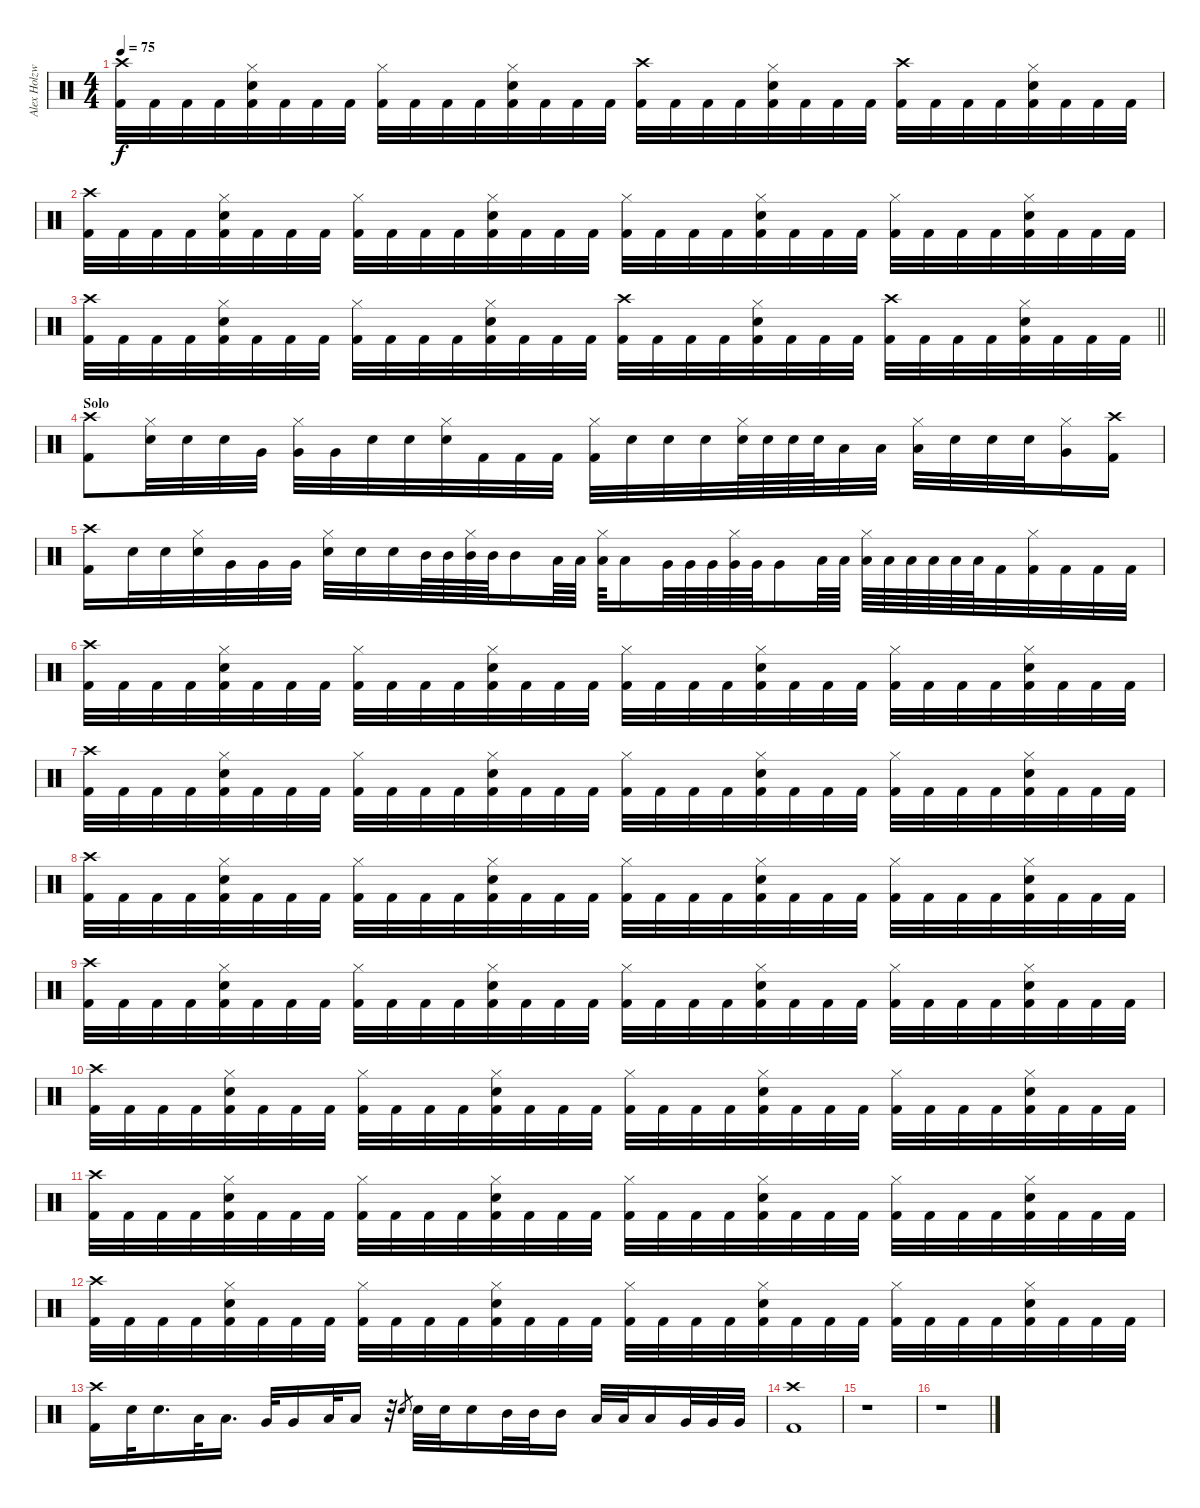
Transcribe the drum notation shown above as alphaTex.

\track ("Alex Holzwarth (Drums)" "Alex Holzw") {instrument percussion}
\staff {score}
\articulation defaults
\ts (4 4)
\tempo 75
\clef neutral
\ks c
("Crash high (hit)" "Kick (hit) 2").32{dy f} "Kick (hit) 2".32 "Kick (hit) 2".32 "Kick (hit) 2".32 ("Hi-Hat (closed)" "Electric Snare (hit)" "Kick (hit) 2").32 "Kick (hit) 2".32 "Kick (hit) 2".32 "Kick (hit) 2".32 ("Hi-Hat (closed)" "Kick (hit) 2").32 "Kick (hit) 2".32 "Kick (hit) 2".32 "Kick (hit) 2".32 ("Hi-Hat (closed)" "Electric Snare (hit)" "Kick (hit) 2").32 "Kick (hit) 2".32 "Kick (hit) 2".32 "Kick (hit) 2".32 ("Crash high (hit)" "Kick (hit) 2").32 "Kick (hit) 2".32 "Kick (hit) 2".32 "Kick (hit) 2".32 ("Hi-Hat (closed)" "Electric Snare (hit)" "Kick (hit) 2").32 "Kick (hit) 2".32 "Kick (hit) 2".32 "Kick (hit) 2".32 ("Crash high (hit)" "Kick (hit) 2").32 "Kick (hit) 2".32 "Kick (hit) 2".32 "Kick (hit) 2".32 ("Hi-Hat (closed)" "Electric Snare (hit)" "Kick (hit) 2").32 "Kick (hit) 2".32 "Kick (hit) 2".32 "Kick (hit) 2".32 |
("Crash high (hit)" "Kick (hit) 2").32 "Kick (hit) 2".32 "Kick (hit) 2".32 "Kick (hit) 2".32 ("Hi-Hat (closed)" "Electric Snare (hit)" "Kick (hit) 2").32 "Kick (hit) 2".32 "Kick (hit) 2".32 "Kick (hit) 2".32 ("Hi-Hat (closed)" "Kick (hit) 2").32 "Kick (hit) 2".32 "Kick (hit) 2".32 "Kick (hit) 2".32 ("Hi-Hat (closed)" "Electric Snare (hit)" "Kick (hit) 2").32 "Kick (hit) 2".32 "Kick (hit) 2".32 "Kick (hit) 2".32 ("Hi-Hat (closed)" "Kick (hit) 2").32 "Kick (hit) 2".32 "Kick (hit) 2".32 "Kick (hit) 2".32 ("Hi-Hat (closed)" "Electric Snare (hit)" "Kick (hit) 2").32 "Kick (hit) 2".32 "Kick (hit) 2".32 "Kick (hit) 2".32 ("Hi-Hat (closed)" "Kick (hit) 2").32 "Kick (hit) 2".32 "Kick (hit) 2".32 "Kick (hit) 2".32 ("Hi-Hat (closed)" "Electric Snare (hit)" "Kick (hit) 2").32 "Kick (hit) 2".32 "Kick (hit) 2".32 "Kick (hit) 2".32 |
\barLineRight lightlight
("Crash high (hit)" "Kick (hit) 2").32 "Kick (hit) 2".32 "Kick (hit) 2".32 "Kick (hit) 2".32 ("Hi-Hat (closed)" "Electric Snare (hit)" "Kick (hit) 2").32 "Kick (hit) 2".32 "Kick (hit) 2".32 "Kick (hit) 2".32 ("Hi-Hat (closed)" "Kick (hit) 2").32 "Kick (hit) 2".32 "Kick (hit) 2".32 "Kick (hit) 2".32 ("Hi-Hat (closed)" "Electric Snare (hit)" "Kick (hit) 2").32 "Kick (hit) 2".32 "Kick (hit) 2".32 "Kick (hit) 2".32 ("Crash high (hit)" "Kick (hit) 2").32 "Kick (hit) 2".32 "Kick (hit) 2".32 "Kick (hit) 2".32 ("Hi-Hat (closed)" "Electric Snare (hit)" "Kick (hit) 2").32 "Kick (hit) 2".32 "Kick (hit) 2".32 "Kick (hit) 2".32 ("Crash high (hit)" "Kick (hit) 2").32 "Kick (hit) 2".32 "Kick (hit) 2".32 "Kick (hit) 2".32 ("Hi-Hat (closed)" "Electric Snare (hit)" "Kick (hit) 2").32 "Kick (hit) 2".32 "Kick (hit) 2".32 "Kick (hit) 2".32 |
\section ("" "Solo")
("Crash high (hit)" "Kick (hit) 2").8 ("Hi-Hat (closed)" "Electric Snare (hit)").32 "Electric Snare (hit)".32 "Electric Snare (hit)".32 "Very Low Tom (hit)".32 ("Hi-Hat (closed)" "Very Low Tom (hit)").32 "Very Low Tom (hit)".32 "Electric Snare (hit)".32 "Electric Snare (hit)".32 ("Hi-Hat (closed)" "Electric Snare (hit)").32 "Kick (hit) 2".32 "Kick (hit) 2".32 "Kick (hit) 2".32 ("Hi-Hat (closed)" "Kick (hit) 2").32 "Electric Snare (hit)".32 "Electric Snare (hit)".32 "Electric Snare (hit)".32 ("Hi-Hat (closed)" "Electric Snare (hit)").64 "Electric Snare (hit)".64 "Electric Snare (hit)".64 "Electric Snare (hit)".64 "Low Tom (hit)".32 "Low Tom (hit)".32 ("Hi-Hat (closed)" "Low Tom (hit)").32 "Electric Snare (hit)".32 "Electric Snare (hit)".32 "Electric Snare (hit)".32 ("Hi-Hat (closed)" "Very Low Tom (hit)").16 ("Crash high (hit)" "Kick (hit) 2").16 |
("Crash high (hit)" "Kick (hit) 2").16 "Electric Snare (hit)".32 "Electric Snare (hit)".32 ("Hi-Hat (closed)" "Electric Snare (hit)").32 "Very Low Tom (hit)".32 "Very Low Tom (hit)".32 "Very Low Tom (hit)".32 ("Hi-Hat (closed)" "Electric Snare (hit)").32 "Electric Snare (hit)".32 "Electric Snare (hit)".32 "Mid Tom (hit)".64 "Mid Tom (hit)".64 ("Hi-Hat (closed)" "Mid Tom (hit)").64 "Mid Tom (hit)".64 "Mid Tom (hit)".16 "Low Tom (hit)".64 "Low Tom (hit)".64 ("Hi-Hat (closed)" "Low Tom (hit)").64 "Low Tom (hit)".16 "Very Low Tom (hit)".64 "Very Low Tom (hit)".64 "Very Low Tom (hit)".64 ("Hi-Hat (closed)" "Very Low Tom (hit)").64 "Very Low Tom (hit)".64 "Very Low Tom (hit)".16 "Low Floor Tom (hit)".64 "Low Floor Tom (hit)".64 ("Hi-Hat (closed)" "Low Floor Tom (hit)").64 "Low Floor Tom (hit)".64 "Low Floor Tom (hit)".64 "Low Floor Tom (hit)".64 "Low Floor Tom (hit)".64 "Low Floor Tom (hit)".64 "Kick (hit) 2".32 ("Hi-Hat (closed)" "Kick (hit) 2").32 "Kick (hit) 2".32 "Kick (hit) 2".32 "Kick (hit) 2".32 |
("Crash high (hit)" "Kick (hit) 2").32 "Kick (hit) 2".32 "Kick (hit) 2".32 "Kick (hit) 2".32 ("Hi-Hat (closed)" "Electric Snare (hit)" "Kick (hit) 2").32 "Kick (hit) 2".32 "Kick (hit) 2".32 "Kick (hit) 2".32 ("Hi-Hat (closed)" "Kick (hit) 2").32 "Kick (hit) 2".32 "Kick (hit) 2".32 "Kick (hit) 2".32 ("Hi-Hat (closed)" "Electric Snare (hit)" "Kick (hit) 2").32 "Kick (hit) 2".32 "Kick (hit) 2".32 "Kick (hit) 2".32 ("Hi-Hat (closed)" "Kick (hit) 2").32 "Kick (hit) 2".32 "Kick (hit) 2".32 "Kick (hit) 2".32 ("Hi-Hat (closed)" "Electric Snare (hit)" "Kick (hit) 2").32 "Kick (hit) 2".32 "Kick (hit) 2".32 "Kick (hit) 2".32 ("Hi-Hat (closed)" "Kick (hit) 2").32 "Kick (hit) 2".32 "Kick (hit) 2".32 "Kick (hit) 2".32 ("Hi-Hat (closed)" "Electric Snare (hit)" "Kick (hit) 2").32 "Kick (hit) 2".32 "Kick (hit) 2".32 "Kick (hit) 2".32 |
("Crash high (hit)" "Kick (hit) 2").32 "Kick (hit) 2".32 "Kick (hit) 2".32 "Kick (hit) 2".32 ("Hi-Hat (closed)" "Electric Snare (hit)" "Kick (hit) 2").32 "Kick (hit) 2".32 "Kick (hit) 2".32 "Kick (hit) 2".32 ("Hi-Hat (closed)" "Kick (hit) 2").32 "Kick (hit) 2".32 "Kick (hit) 2".32 "Kick (hit) 2".32 ("Hi-Hat (closed)" "Electric Snare (hit)" "Kick (hit) 2").32 "Kick (hit) 2".32 "Kick (hit) 2".32 "Kick (hit) 2".32 ("Hi-Hat (closed)" "Kick (hit) 2").32 "Kick (hit) 2".32 "Kick (hit) 2".32 "Kick (hit) 2".32 ("Hi-Hat (closed)" "Electric Snare (hit)" "Kick (hit) 2").32 "Kick (hit) 2".32 "Kick (hit) 2".32 "Kick (hit) 2".32 ("Hi-Hat (closed)" "Kick (hit) 2").32 "Kick (hit) 2".32 "Kick (hit) 2".32 "Kick (hit) 2".32 ("Hi-Hat (closed)" "Electric Snare (hit)" "Kick (hit) 2").32 "Kick (hit) 2".32 "Kick (hit) 2".32 "Kick (hit) 2".32 |
("Crash high (hit)" "Kick (hit) 2").32 "Kick (hit) 2".32 "Kick (hit) 2".32 "Kick (hit) 2".32 ("Hi-Hat (closed)" "Electric Snare (hit)" "Kick (hit) 2").32 "Kick (hit) 2".32 "Kick (hit) 2".32 "Kick (hit) 2".32 ("Hi-Hat (closed)" "Kick (hit) 2").32 "Kick (hit) 2".32 "Kick (hit) 2".32 "Kick (hit) 2".32 ("Hi-Hat (closed)" "Electric Snare (hit)" "Kick (hit) 2").32 "Kick (hit) 2".32 "Kick (hit) 2".32 "Kick (hit) 2".32 ("Hi-Hat (closed)" "Kick (hit) 2").32 "Kick (hit) 2".32 "Kick (hit) 2".32 "Kick (hit) 2".32 ("Hi-Hat (closed)" "Electric Snare (hit)" "Kick (hit) 2").32 "Kick (hit) 2".32 "Kick (hit) 2".32 "Kick (hit) 2".32 ("Hi-Hat (closed)" "Kick (hit) 2").32 "Kick (hit) 2".32 "Kick (hit) 2".32 "Kick (hit) 2".32 ("Hi-Hat (closed)" "Electric Snare (hit)" "Kick (hit) 2").32 "Kick (hit) 2".32 "Kick (hit) 2".32 "Kick (hit) 2".32 |
("Crash high (hit)" "Kick (hit) 2").32 "Kick (hit) 2".32 "Kick (hit) 2".32 "Kick (hit) 2".32 ("Hi-Hat (closed)" "Electric Snare (hit)" "Kick (hit) 2").32 "Kick (hit) 2".32 "Kick (hit) 2".32 "Kick (hit) 2".32 ("Hi-Hat (closed)" "Kick (hit) 2").32 "Kick (hit) 2".32 "Kick (hit) 2".32 "Kick (hit) 2".32 ("Hi-Hat (closed)" "Electric Snare (hit)" "Kick (hit) 2").32 "Kick (hit) 2".32 "Kick (hit) 2".32 "Kick (hit) 2".32 ("Hi-Hat (closed)" "Kick (hit) 2").32 "Kick (hit) 2".32 "Kick (hit) 2".32 "Kick (hit) 2".32 ("Hi-Hat (closed)" "Electric Snare (hit)" "Kick (hit) 2").32 "Kick (hit) 2".32 "Kick (hit) 2".32 "Kick (hit) 2".32 ("Hi-Hat (closed)" "Kick (hit) 2").32 "Kick (hit) 2".32 "Kick (hit) 2".32 "Kick (hit) 2".32 ("Hi-Hat (closed)" "Electric Snare (hit)" "Kick (hit) 2").32 "Kick (hit) 2".32 "Kick (hit) 2".32 "Kick (hit) 2".32 |
("Crash high (hit)" "Kick (hit) 2").32 "Kick (hit) 2".32 "Kick (hit) 2".32 "Kick (hit) 2".32 ("Hi-Hat (closed)" "Electric Snare (hit)" "Kick (hit) 2").32 "Kick (hit) 2".32 "Kick (hit) 2".32 "Kick (hit) 2".32 ("Hi-Hat (closed)" "Kick (hit) 2").32 "Kick (hit) 2".32 "Kick (hit) 2".32 "Kick (hit) 2".32 ("Hi-Hat (closed)" "Electric Snare (hit)" "Kick (hit) 2").32 "Kick (hit) 2".32 "Kick (hit) 2".32 "Kick (hit) 2".32 ("Hi-Hat (closed)" "Kick (hit) 2").32 "Kick (hit) 2".32 "Kick (hit) 2".32 "Kick (hit) 2".32 ("Hi-Hat (closed)" "Electric Snare (hit)" "Kick (hit) 2").32 "Kick (hit) 2".32 "Kick (hit) 2".32 "Kick (hit) 2".32 ("Hi-Hat (closed)" "Kick (hit) 2").32 "Kick (hit) 2".32 "Kick (hit) 2".32 "Kick (hit) 2".32 ("Hi-Hat (closed)" "Electric Snare (hit)" "Kick (hit) 2").32 "Kick (hit) 2".32 "Kick (hit) 2".32 "Kick (hit) 2".32 |
("Crash high (hit)" "Kick (hit) 2").32 "Kick (hit) 2".32 "Kick (hit) 2".32 "Kick (hit) 2".32 ("Hi-Hat (closed)" "Electric Snare (hit)" "Kick (hit) 2").32 "Kick (hit) 2".32 "Kick (hit) 2".32 "Kick (hit) 2".32 ("Hi-Hat (closed)" "Kick (hit) 2").32 "Kick (hit) 2".32 "Kick (hit) 2".32 "Kick (hit) 2".32 ("Hi-Hat (closed)" "Electric Snare (hit)" "Kick (hit) 2").32 "Kick (hit) 2".32 "Kick (hit) 2".32 "Kick (hit) 2".32 ("Hi-Hat (closed)" "Kick (hit) 2").32 "Kick (hit) 2".32 "Kick (hit) 2".32 "Kick (hit) 2".32 ("Hi-Hat (closed)" "Electric Snare (hit)" "Kick (hit) 2").32 "Kick (hit) 2".32 "Kick (hit) 2".32 "Kick (hit) 2".32 ("Hi-Hat (closed)" "Kick (hit) 2").32 "Kick (hit) 2".32 "Kick (hit) 2".32 "Kick (hit) 2".32 ("Hi-Hat (closed)" "Electric Snare (hit)" "Kick (hit) 2").32 "Kick (hit) 2".32 "Kick (hit) 2".32 "Kick (hit) 2".32 |
("Crash high (hit)" "Kick (hit) 2").32 "Kick (hit) 2".32 "Kick (hit) 2".32 "Kick (hit) 2".32 ("Hi-Hat (closed)" "Electric Snare (hit)" "Kick (hit) 2").32 "Kick (hit) 2".32 "Kick (hit) 2".32 "Kick (hit) 2".32 ("Hi-Hat (closed)" "Kick (hit) 2").32 "Kick (hit) 2".32 "Kick (hit) 2".32 "Kick (hit) 2".32 ("Hi-Hat (closed)" "Electric Snare (hit)" "Kick (hit) 2").32 "Kick (hit) 2".32 "Kick (hit) 2".32 "Kick (hit) 2".32 ("Hi-Hat (closed)" "Kick (hit) 2").32 "Kick (hit) 2".32 "Kick (hit) 2".32 "Kick (hit) 2".32 ("Hi-Hat (closed)" "Electric Snare (hit)" "Kick (hit) 2").32 "Kick (hit) 2".32 "Kick (hit) 2".32 "Kick (hit) 2".32 ("Hi-Hat (closed)" "Kick (hit) 2").32 "Kick (hit) 2".32 "Kick (hit) 2".32 "Kick (hit) 2".32 ("Hi-Hat (closed)" "Electric Snare (hit)" "Kick (hit) 2").32 "Kick (hit) 2".32 "Kick (hit) 2".32 "Kick (hit) 2".32 |
("Crash high (hit)" "Kick (hit) 2").16 "Electric Snare (hit)".32 "Electric Snare (hit)".16{d} "Low Tom (hit)".32 "Low Tom (hit)".16{d} "Very Low Tom (hit)".32 "Very Low Tom (hit)".16 "Low Floor Tom (hit)".32 "Low Floor Tom (hit)".16 r.32 "Electric Snare (hit)".8{gr} "Electric Snare (hit)".32 "Electric Snare (hit)".32 "Electric Snare (hit)".16 "Mid Tom (hit)".32 "Mid Tom (hit)".32 "Mid Tom (hit)".16 "Low Tom (hit)".32 "Low Tom (hit)".32 "Low Tom (hit)".16 "Very Low Tom (hit)".32 "Very Low Tom (hit)".32 "Very Low Tom (hit)".32 |
("Crash high (hit)" "Kick (hit) 2").1 |
r.1 |
r.1
